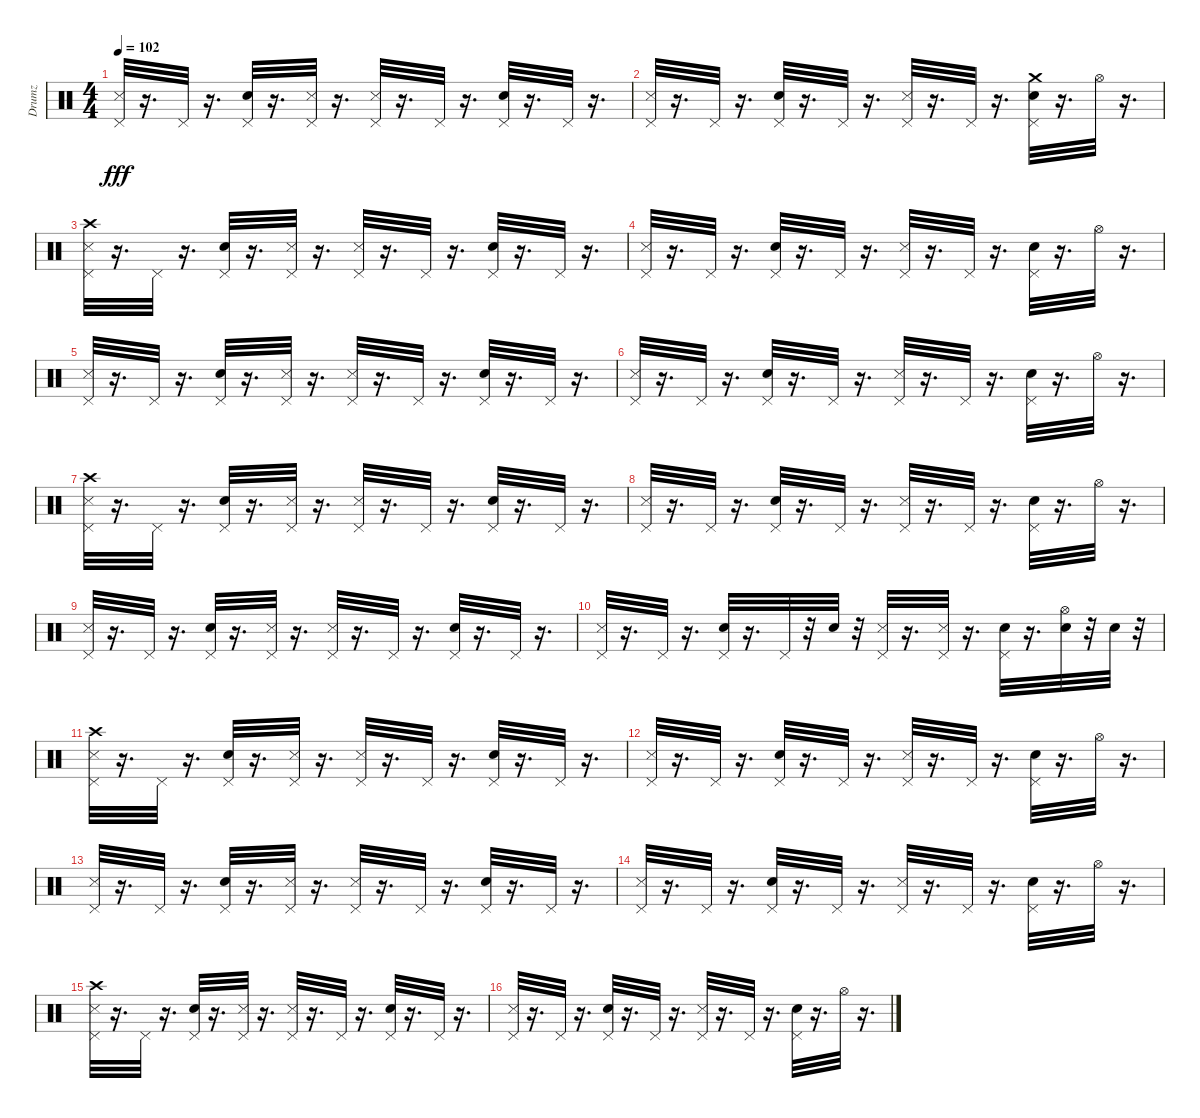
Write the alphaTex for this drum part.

\track ("Drumz" "Drumz") {instrument percussion}
\staff {score}
\articulation defaults
\ts (4 4)
\tempo 102
\clef neutral
\ks c
("Metronome (hit)" "Pedal Hi-Hat (hit)").32{dy fff} r.16{d} "Pedal Hi-Hat (hit)".32 r.16{d} ("Pedal Hi-Hat (hit)" "Snare (hit) 2").32 r.16{d} ("Pedal Hi-Hat (hit)" "Metronome (hit)").32 r.16{d} ("Metronome (hit)" "Pedal Hi-Hat (hit)").32 r.16{d} "Pedal Hi-Hat (hit)".32 r.16{d} ("Pedal Hi-Hat (hit)" "Snare (hit) 2").32 r.16{d} "Pedal Hi-Hat (hit)".32 r.16{d} |
("Metronome (hit)" "Pedal Hi-Hat (hit)").32 r.16{d} "Pedal Hi-Hat (hit)".32 r.16{d} ("Snare (hit) 2" "Pedal Hi-Hat (hit)").32 r.16{d} "Pedal Hi-Hat (hit)".32 r.16{d} ("Pedal Hi-Hat (hit)" "Metronome (hit)").32 r.16{d} "Pedal Hi-Hat (hit)".32 r.16{d} ("Pedal Hi-Hat (hit)" "Snare (hit) 2" "Crash medium (hit)").32 r.16{d} "Hi-Hat (open)".32 r.16{d} |
("Metronome (hit)" "Pedal Hi-Hat (hit)" "Crash high (hit)").32{volume 16 balance 8} r.16{d} "Pedal Hi-Hat (hit)".32 r.16{d} ("Pedal Hi-Hat (hit)" "Snare (hit) 2").32 r.16{d} ("Metronome (hit)" "Pedal Hi-Hat (hit)").32 r.16{d} ("Pedal Hi-Hat (hit)" "Metronome (hit)").32 r.16{d} "Pedal Hi-Hat (hit)".32 r.16{d} ("Pedal Hi-Hat (hit)" "Snare (hit) 2").32 r.16{d} "Pedal Hi-Hat (hit)".32 r.16{d} |
("Metronome (hit)" "Pedal Hi-Hat (hit)").32 r.16{d} "Pedal Hi-Hat (hit)".32 r.16{d} ("Snare (hit) 2" "Pedal Hi-Hat (hit)").32 r.16{d} "Pedal Hi-Hat (hit)".32 r.16{d} ("Pedal Hi-Hat (hit)" "Metronome (hit)").32 r.16{d} "Pedal Hi-Hat (hit)".32 r.16{d} ("Pedal Hi-Hat (hit)" "Snare (hit) 2").32 r.16{d} "Hi-Hat (open)".32 r.16{d} |
("Pedal Hi-Hat (hit)" "Metronome (hit)").32 r.16{d} "Pedal Hi-Hat (hit)".32 r.16{d} ("Pedal Hi-Hat (hit)" "Snare (hit) 2").32 r.16{d} ("Pedal Hi-Hat (hit)" "Metronome (hit)").32 r.16{d} ("Metronome (hit)" "Pedal Hi-Hat (hit)").32 r.16{d} "Pedal Hi-Hat (hit)".32 r.16{d} ("Pedal Hi-Hat (hit)" "Snare (hit) 2").32 r.16{d} "Pedal Hi-Hat (hit)".32 r.16{d} |
("Metronome (hit)" "Pedal Hi-Hat (hit)").32 r.16{d} "Pedal Hi-Hat (hit)".32 r.16{d} ("Pedal Hi-Hat (hit)" "Snare (hit) 2").32 r.16{d} "Pedal Hi-Hat (hit)".32 r.16{d} ("Metronome (hit)" "Pedal Hi-Hat (hit)").32 r.16{d} "Pedal Hi-Hat (hit)".32 r.16{d} ("Pedal Hi-Hat (hit)" "Snare (hit) 2").32 r.16{d} "Hi-Hat (open)".32 r.16{d} |
("Pedal Hi-Hat (hit)" "Metronome (hit)" "Crash high (hit)").32 r.16{d} "Pedal Hi-Hat (hit)".32 r.16{d} ("Snare (hit) 2" "Pedal Hi-Hat (hit)").32 r.16{d} ("Pedal Hi-Hat (hit)" "Metronome (hit)").32 r.16{d} ("Pedal Hi-Hat (hit)" "Metronome (hit)").32 r.16{d} "Pedal Hi-Hat (hit)".32 r.16{d} ("Snare (hit) 2" "Pedal Hi-Hat (hit)").32 r.16{d} "Pedal Hi-Hat (hit)".32 r.16{d} |
("Pedal Hi-Hat (hit)" "Metronome (hit)").32 r.16{d} "Pedal Hi-Hat (hit)".32 r.16{d} ("Pedal Hi-Hat (hit)" "Snare (hit) 2").32 r.16{d} "Pedal Hi-Hat (hit)".32 r.16{d} ("Pedal Hi-Hat (hit)" "Metronome (hit)").32 r.16{d} "Pedal Hi-Hat (hit)".32 r.16{d} ("Snare (hit) 2" "Pedal Hi-Hat (hit)").32 r.16{d} "Hi-Hat (open)".32 r.16{d} |
("Pedal Hi-Hat (hit)" "Metronome (hit)").32 r.16{d} "Pedal Hi-Hat (hit)".32 r.16{d} ("Pedal Hi-Hat (hit)" "Snare (hit) 2").32 r.16{d} ("Metronome (hit)" "Pedal Hi-Hat (hit)").32 r.16{d} ("Metronome (hit)" "Pedal Hi-Hat (hit)").32 r.16{d} "Pedal Hi-Hat (hit)".32 r.16{d} ("Pedal Hi-Hat (hit)" "Snare (hit) 2").32 r.16{d} "Pedal Hi-Hat (hit)".32 r.16{d} |
("Pedal Hi-Hat (hit)" "Metronome (hit)").32 r.16{d} "Pedal Hi-Hat (hit)".32 r.16{d} ("Snare (hit) 2" "Pedal Hi-Hat (hit)").32 r.16{d} "Pedal Hi-Hat (hit)".32 r.32 "Snare (hit) 2".32 r.32 ("Pedal Hi-Hat (hit)" "Metronome (hit)").32 r.16{d} ("Pedal Hi-Hat (hit)" "Metronome (hit)").32 r.16{d} ("Pedal Hi-Hat (hit)" "Snare (hit) 2").32 r.16{d} ("Snare (hit) 2" "Hi-Hat (open)").32 r.32 "Snare (hit) 2".32 r.32 |
("Crash high (hit)" "Metronome (hit)" "Pedal Hi-Hat (hit)").32 r.16{d} "Pedal Hi-Hat (hit)".32 r.16{d} ("Snare (hit) 2" "Pedal Hi-Hat (hit)").32 r.16{d} ("Pedal Hi-Hat (hit)" "Metronome (hit)").32 r.16{d} ("Metronome (hit)" "Pedal Hi-Hat (hit)").32 r.16{d} "Pedal Hi-Hat (hit)".32 r.16{d} ("Snare (hit) 2" "Pedal Hi-Hat (hit)").32 r.16{d} "Pedal Hi-Hat (hit)".32 r.16{d} |
("Metronome (hit)" "Pedal Hi-Hat (hit)").32 r.16{d} "Pedal Hi-Hat (hit)".32 r.16{d} ("Snare (hit) 2" "Pedal Hi-Hat (hit)").32 r.16{d} "Pedal Hi-Hat (hit)".32 r.16{d} ("Metronome (hit)" "Pedal Hi-Hat (hit)").32 r.16{d} "Pedal Hi-Hat (hit)".32 r.16{d} ("Pedal Hi-Hat (hit)" "Snare (hit) 2").32 r.16{d} "Hi-Hat (open)".32 r.16{d} |
("Pedal Hi-Hat (hit)" "Metronome (hit)").32 r.16{d} "Pedal Hi-Hat (hit)".32 r.16{d} ("Snare (hit) 2" "Pedal Hi-Hat (hit)").32 r.16{d} ("Metronome (hit)" "Pedal Hi-Hat (hit)").32 r.16{d} ("Metronome (hit)" "Pedal Hi-Hat (hit)").32 r.16{d} "Pedal Hi-Hat (hit)".32 r.16{d} ("Pedal Hi-Hat (hit)" "Snare (hit) 2").32 r.16{d} "Pedal Hi-Hat (hit)".32 r.16{d} |
("Metronome (hit)" "Pedal Hi-Hat (hit)").32 r.16{d} "Pedal Hi-Hat (hit)".32 r.16{d} ("Snare (hit) 2" "Pedal Hi-Hat (hit)").32 r.16{d} "Pedal Hi-Hat (hit)".32 r.16{d} ("Pedal Hi-Hat (hit)" "Metronome (hit)").32 r.16{d} "Pedal Hi-Hat (hit)".32 r.16{d} ("Snare (hit) 2" "Pedal Hi-Hat (hit)").32 r.16{d} "Hi-Hat (open)".32 r.16{d} |
("Pedal Hi-Hat (hit)" "Crash high (hit)" "Metronome (hit)").32 r.16{d} "Pedal Hi-Hat (hit)".32 r.16{d} ("Snare (hit) 2" "Pedal Hi-Hat (hit)").32 r.16{d} ("Metronome (hit)" "Pedal Hi-Hat (hit)").32 r.16{d} ("Metronome (hit)" "Pedal Hi-Hat (hit)").32 r.16{d} "Pedal Hi-Hat (hit)".32 r.16{d} ("Pedal Hi-Hat (hit)" "Snare (hit) 2").32 r.16{d} "Pedal Hi-Hat (hit)".32 r.16{d} |
("Metronome (hit)" "Pedal Hi-Hat (hit)").32 r.16{d} "Pedal Hi-Hat (hit)".32 r.16{d} ("Pedal Hi-Hat (hit)" "Snare (hit) 2").32 r.16{d} "Pedal Hi-Hat (hit)".32 r.16{d} ("Pedal Hi-Hat (hit)" "Metronome (hit)").32 r.16{d} "Pedal Hi-Hat (hit)".32 r.16{d} ("Snare (hit) 2" "Pedal Hi-Hat (hit)").32 r.16{d} "Hi-Hat (open)".32 r.16{d}
